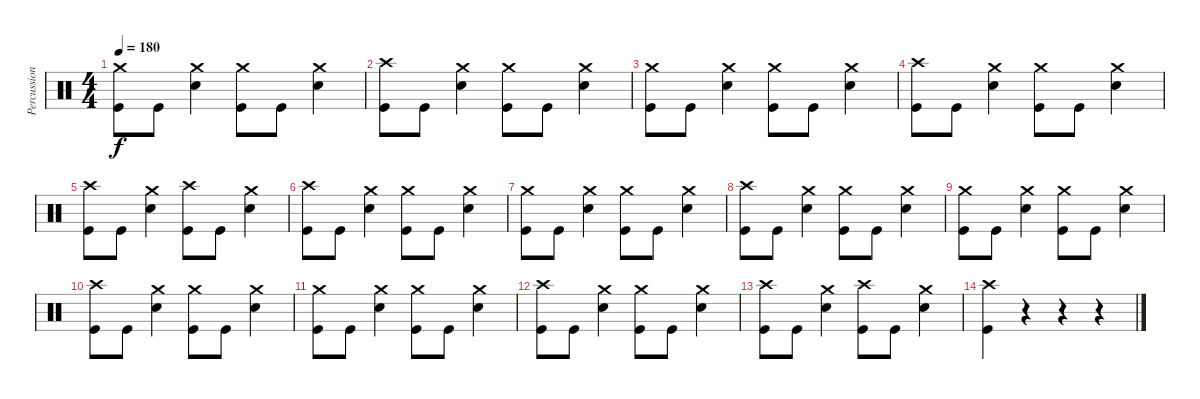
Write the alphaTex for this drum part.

\track ("Percussion" "Percussion") {instrument percussion}
\staff {score}
\articulation defaults
\ts (4 4)
\tempo 180
\clef neutral
\ks c
("Crash medium (hit)" "Kick (hit)").8{dy f} "Kick (hit)".8 ("Crash medium (hit)" "Snare (hit) 2").4 ("Crash medium (hit)" "Kick (hit)").8 "Kick (hit)".8 ("Crash medium (hit)" "Snare (hit) 2").4 |
("Crash high (hit)" "Kick (hit)").8 "Kick (hit)".8 ("Crash medium (hit)" "Snare (hit) 2").4 ("Crash medium (hit)" "Kick (hit)").8 "Kick (hit)".8 ("Crash medium (hit)" "Snare (hit) 2").4 |
("Crash medium (hit)" "Kick (hit)").8 "Kick (hit)".8 ("Crash medium (hit)" "Snare (hit) 2").4 ("Crash medium (hit)" "Kick (hit)").8 "Kick (hit)".8 ("Crash medium (hit)" "Snare (hit) 2").4 |
("Crash high (hit)" "Kick (hit)").8 "Kick (hit)".8 ("Crash medium (hit)" "Snare (hit) 2").4 ("Crash medium (hit)" "Kick (hit)").8 "Kick (hit)".8 ("Crash medium (hit)" "Snare (hit) 2").4 |
("Crash high (hit)" "Kick (hit)").8 "Kick (hit)".8 ("Crash medium (hit)" "Snare (hit) 2").4 ("Crash high (hit)" "Kick (hit)").8 "Kick (hit)".8 ("Crash medium (hit)" "Snare (hit) 2").4 |
("Crash high (hit)" "Kick (hit)").8 "Kick (hit)".8 ("Crash medium (hit)" "Snare (hit) 2").4 ("Crash medium (hit)" "Kick (hit)").8 "Kick (hit)".8 ("Crash medium (hit)" "Snare (hit) 2").4 |
("Crash medium (hit)" "Kick (hit)").8 "Kick (hit)".8 ("Crash medium (hit)" "Snare (hit) 2").4 ("Crash medium (hit)" "Kick (hit)").8 "Kick (hit)".8 ("Crash medium (hit)" "Snare (hit) 2").4 |
("Crash high (hit)" "Kick (hit)").8 "Kick (hit)".8 ("Crash medium (hit)" "Snare (hit) 2").4 ("Crash medium (hit)" "Kick (hit)").8 "Kick (hit)".8 ("Crash medium (hit)" "Snare (hit) 2").4 |
("Crash medium (hit)" "Kick (hit)").8 "Kick (hit)".8 ("Crash medium (hit)" "Snare (hit) 2").4 ("Crash medium (hit)" "Kick (hit)").8 "Kick (hit)".8 ("Crash medium (hit)" "Snare (hit) 2").4 |
("Crash high (hit)" "Kick (hit)").8 "Kick (hit)".8 ("Crash medium (hit)" "Snare (hit) 2").4 ("Crash medium (hit)" "Kick (hit)").8 "Kick (hit)".8 ("Crash medium (hit)" "Snare (hit) 2").4 |
("Crash medium (hit)" "Kick (hit)").8 "Kick (hit)".8 ("Crash medium (hit)" "Snare (hit) 2").4 ("Crash medium (hit)" "Kick (hit)").8 "Kick (hit)".8 ("Crash medium (hit)" "Snare (hit) 2").4 |
("Crash high (hit)" "Kick (hit)").8 "Kick (hit)".8 ("Crash medium (hit)" "Snare (hit) 2").4 ("Crash medium (hit)" "Kick (hit)").8 "Kick (hit)".8 ("Crash medium (hit)" "Snare (hit) 2").4 |
("Crash high (hit)" "Kick (hit)").8 "Kick (hit)".8 ("Crash medium (hit)" "Snare (hit) 2").4 ("Crash high (hit)" "Kick (hit)").8 "Kick (hit)".8 ("Crash medium (hit)" "Snare (hit) 2").4 |
("Crash high (hit)" "Kick (hit)").4 r.4 r.4 r.4
